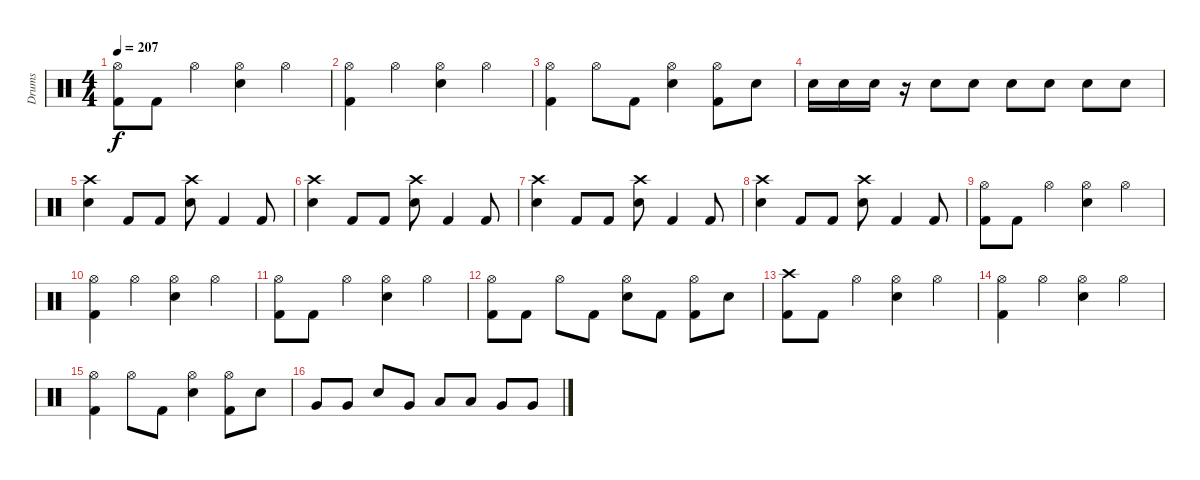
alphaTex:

\track ("Drums" "Drums") {instrument percussion}
\staff {score}
\articulation defaults
\ts (4 4)
\tempo 207
\clef neutral
\ks c
("Hi-Hat (open)" "Kick (hit) 2").8{dy f} "Kick (hit) 2".8 "Hi-Hat (open)".4 ("Hi-Hat (open)" "Electric Snare (hit)").4 "Hi-Hat (open)".4 |
("Hi-Hat (open)" "Kick (hit) 2").4 "Hi-Hat (open)".4 ("Hi-Hat (open)" "Electric Snare (hit)").4 "Hi-Hat (open)".4 |
("Hi-Hat (open)" "Kick (hit) 2").4 "Hi-Hat (open)".8 "Kick (hit) 2".8 ("Hi-Hat (open)" "Electric Snare (hit)").4 ("Hi-Hat (open)" "Kick (hit) 2").8 "Electric Snare (hit)".8 |
"Electric Snare (hit)".16 "Electric Snare (hit)".16 "Electric Snare (hit)".16 r.16 "Electric Snare (hit)".8 "Electric Snare (hit)".8 "Electric Snare (hit)".8 "Electric Snare (hit)".8 "Electric Snare (hit)".8 "Electric Snare (hit)".8 |
("Crash high (hit)" "Electric Snare (hit)").4 "Kick (hit) 2".8 "Kick (hit) 2".8 ("Crash high (hit)" "Electric Snare (hit)").8 "Kick (hit) 2".4 "Kick (hit) 2".8 |
("Crash high (hit)" "Electric Snare (hit)").4 "Kick (hit) 2".8 "Kick (hit) 2".8 ("Crash high (hit)" "Electric Snare (hit)").8 "Kick (hit) 2".4 "Kick (hit) 2".8 |
("Crash high (hit)" "Electric Snare (hit)").4 "Kick (hit) 2".8 "Kick (hit) 2".8 ("Crash high (hit)" "Electric Snare (hit)").8 "Kick (hit) 2".4 "Kick (hit) 2".8 |
("Crash high (hit)" "Electric Snare (hit)").4 "Kick (hit) 2".8 "Kick (hit) 2".8 ("Crash high (hit)" "Electric Snare (hit)").8 "Kick (hit) 2".4 "Kick (hit) 2".8 |
("Hi-Hat (open)" "Kick (hit) 2").8 "Kick (hit) 2".8 "Hi-Hat (open)".4 ("Hi-Hat (open)" "Electric Snare (hit)").4 "Hi-Hat (open)".4 |
("Hi-Hat (open)" "Kick (hit) 2").4 "Hi-Hat (open)".4 ("Hi-Hat (open)" "Electric Snare (hit)").4 "Hi-Hat (open)".4 |
("Hi-Hat (open)" "Kick (hit) 2").8 "Kick (hit) 2".8 "Hi-Hat (open)".4 ("Hi-Hat (open)" "Electric Snare (hit)").4 "Hi-Hat (open)".4 |
("Hi-Hat (open)" "Kick (hit) 2").8 "Kick (hit) 2".8 "Hi-Hat (open)".8 "Kick (hit) 2".8 ("Hi-Hat (open)" "Electric Snare (hit)").8 "Kick (hit) 2".8 ("Hi-Hat (open)" "Kick (hit) 2").8 "Electric Snare (hit)".8 |
("Crash high (hit)" "Kick (hit) 2").8 "Kick (hit) 2".8 "Hi-Hat (open)".4 ("Hi-Hat (open)" "Electric Snare (hit)").4 "Hi-Hat (open)".4 |
("Hi-Hat (open)" "Kick (hit) 2").4 "Hi-Hat (open)".4 ("Hi-Hat (open)" "Electric Snare (hit)").4 "Hi-Hat (open)".4 |
("Hi-Hat (open)" "Kick (hit) 2").4 "Hi-Hat (open)".8 "Kick (hit) 2".8 ("Hi-Hat (open)" "Electric Snare (hit)").4 ("Hi-Hat (open)" "Kick (hit) 2").8 "Electric Snare (hit)".8 |
"Very Low Tom (hit)".8 "Very Low Tom (hit)".8 "Electric Snare (hit)".8 "Very Low Tom (hit)".8 "Low Floor Tom (hit)".8 "Low Floor Tom (hit)".8 "Very Low Tom (hit)".8 "Very Low Tom (hit)".8
